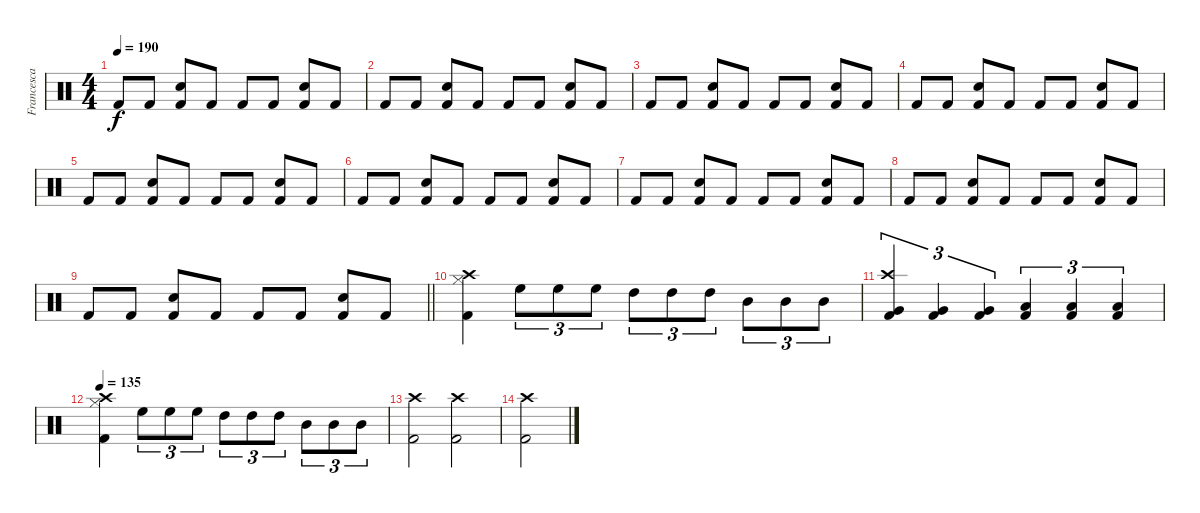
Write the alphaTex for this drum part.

\track ("Francesca Tresca" "Francesca ") {instrument percussion}
\staff {score}
\articulation defaults
\ts (4 4)
\tempo 190
\clef neutral
\ks c "Kick (hit) 2".8{dy f} "Kick (hit) 2".8
("Snare (hit) 2" "Kick (hit) 2").8 "Kick (hit) 2".8 "Kick (hit) 2".8 "Kick (hit) 2".8 ("Snare (hit) 2" "Kick (hit) 2").8 "Kick (hit) 2".8 |
"Kick (hit) 2".8 "Kick (hit) 2".8 ("Snare (hit) 2" "Kick (hit) 2").8 "Kick (hit) 2".8 "Kick (hit) 2".8 "Kick (hit) 2".8 ("Snare (hit) 2" "Kick (hit) 2").8 "Kick (hit) 2".8 |
"Kick (hit) 2".8 "Kick (hit) 2".8 ("Snare (hit) 2" "Kick (hit) 2").8 "Kick (hit) 2".8 "Kick (hit) 2".8 "Kick (hit) 2".8 ("Snare (hit) 2" "Kick (hit) 2").8 "Kick (hit) 2".8 |
"Kick (hit) 2".8 "Kick (hit) 2".8 ("Snare (hit) 2" "Kick (hit) 2").8 "Kick (hit) 2".8 "Kick (hit) 2".8 "Kick (hit) 2".8 ("Snare (hit) 2" "Kick (hit) 2").8 "Kick (hit) 2".8 |
"Kick (hit) 2".8 "Kick (hit) 2".8 ("Snare (hit) 2" "Kick (hit) 2").8 "Kick (hit) 2".8 "Kick (hit) 2".8 "Kick (hit) 2".8 ("Snare (hit) 2" "Kick (hit) 2").8 "Kick (hit) 2".8 |
"Kick (hit) 2".8 "Kick (hit) 2".8 ("Snare (hit) 2" "Kick (hit) 2").8 "Kick (hit) 2".8 "Kick (hit) 2".8 "Kick (hit) 2".8 ("Snare (hit) 2" "Kick (hit) 2").8 "Kick (hit) 2".8 |
"Kick (hit) 2".8 "Kick (hit) 2".8 ("Snare (hit) 2" "Kick (hit) 2").8 "Kick (hit) 2".8 "Kick (hit) 2".8 "Kick (hit) 2".8 ("Snare (hit) 2" "Kick (hit) 2").8 "Kick (hit) 2".8 |
"Kick (hit) 2".8 "Kick (hit) 2".8 ("Snare (hit) 2" "Kick (hit) 2").8 "Kick (hit) 2".8 "Kick (hit) 2".8 "Kick (hit) 2".8 ("Snare (hit) 2" "Kick (hit) 2").8 "Kick (hit) 2".8 |
\barLineRight lightlight "Kick (hit) 2".8 "Kick (hit) 2".8
("Snare (hit) 2" "Kick (hit) 2").8 "Kick (hit) 2".8 "Kick (hit) 2".8 "Kick (hit) 2".8 ("Snare (hit) 2" "Kick (hit) 2").8 "Kick (hit) 2".8 |
("Hi-Hat (closed)" "Crash high (hit)" "Kick (hit) 2").4 "High Floor Tom (hit)".8{tu (3 2)} "High Floor Tom (hit)".8{tu (3 2)} "High Floor Tom (hit)".8{tu (3 2)} "High Tom (hit)".8{tu (3 2)} "High Tom (hit)".8{tu (3 2)} "High Tom (hit)".8{tu (3 2)} "Mid Tom (hit)".8{tu (3 2)} "Mid Tom (hit)".8{tu (3 2)} "Mid Tom (hit)".8{tu (3 2)} |
("Very Low Tom (hit)" "Crash high (hit)" "Kick (hit) 2").4{tu (3 2)} ("Very Low Tom (hit)" "Kick (hit) 2").4{tu (3 2)} ("Very Low Tom (hit)" "Kick (hit) 2").4{tu (3 2)} ("Low Floor Tom (hit)" "Kick (hit) 2").4{tu (3 2)} ("Low Floor Tom (hit)" "Kick (hit) 2").4{tu (3 2)} ("Low Floor Tom (hit)" "Kick (hit) 2").4{tu (3 2)} |
\tempo 135
("Hi-Hat (closed)" "Crash high (hit)" "Kick (hit) 2").4 "High Floor Tom (hit)".8{tu (3 2)} "High Floor Tom (hit)".8{tu (3 2)} "High Floor Tom (hit)".8{tu (3 2)} "High Tom (hit)".8{tu (3 2)} "High Tom (hit)".8{tu (3 2)} "High Tom (hit)".8{tu (3 2)} "Mid Tom (hit)".8{tu (3 2)} "Mid Tom (hit)".8{tu (3 2)} "Mid Tom (hit)".8{tu (3 2)} |
("Crash high (hit)" "Kick (hit) 2").2 ("Crash high (hit)" "Kick (hit) 2").2 |
("Crash high (hit)" "Kick (hit) 2").2
